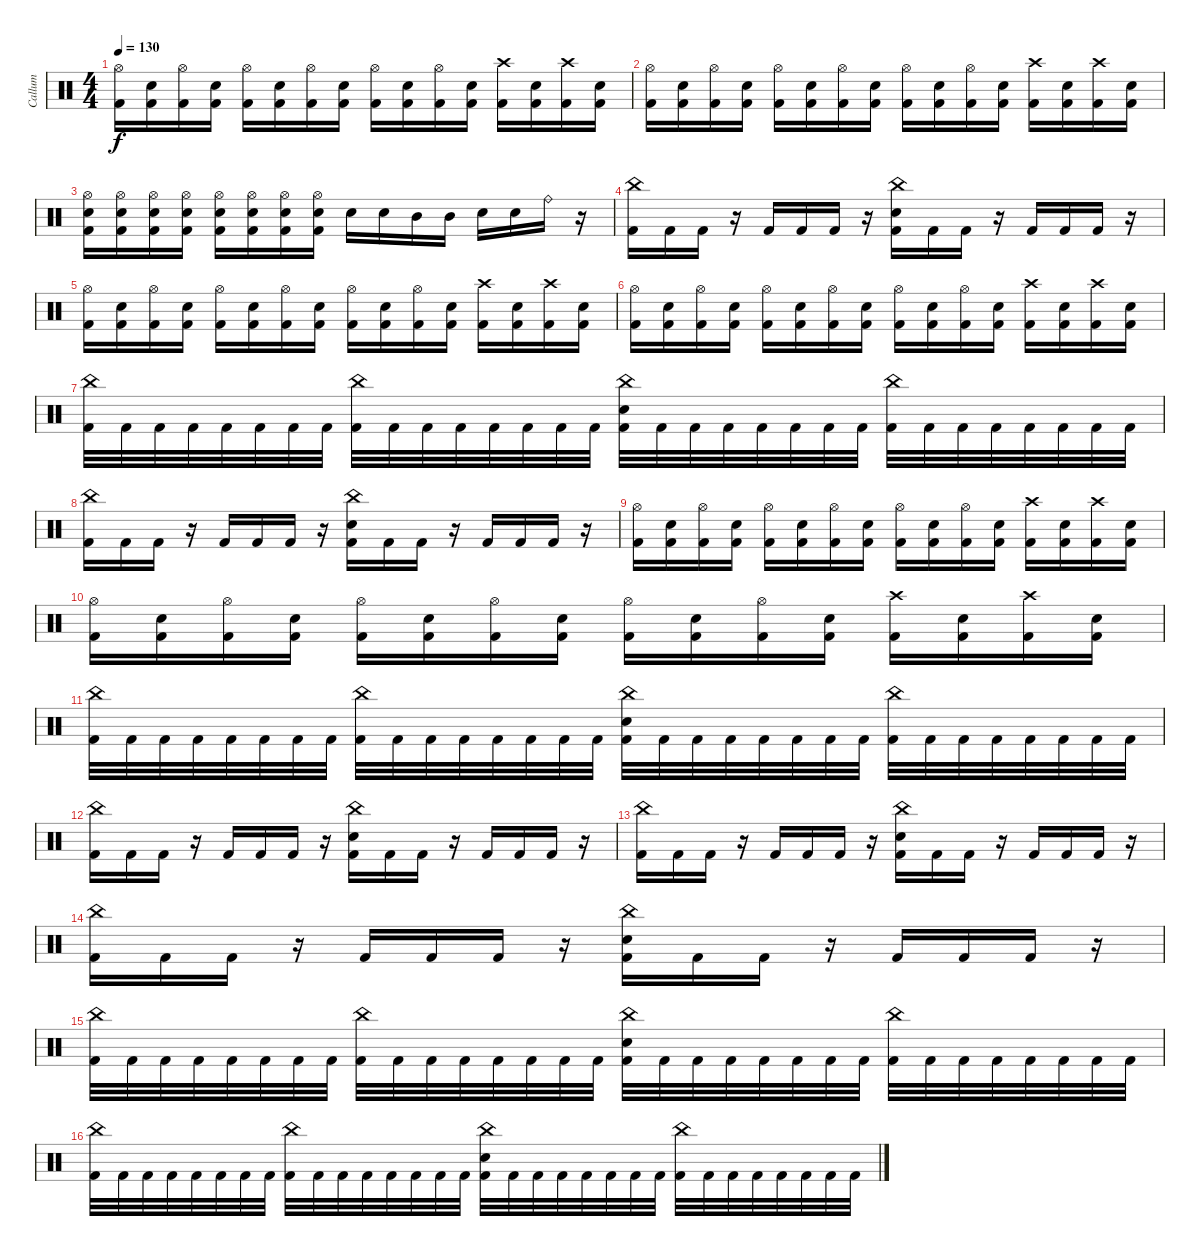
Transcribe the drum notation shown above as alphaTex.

\track ("Callum" "Callum") {instrument percussion}
\staff {score}
\articulation defaults
\ts (4 4)
\tempo 130
\clef neutral
\ks c
("Hi-Hat (open)" "Kick (hit) 2").16{dy f} ("Electric Snare (hit)" "Kick (hit) 2").16 ("Hi-Hat (open)" "Kick (hit) 2").16 ("Electric Snare (hit)" "Kick (hit) 2").16 ("Hi-Hat (open)" "Kick (hit) 2").16 ("Electric Snare (hit)" "Kick (hit) 2").16 ("Hi-Hat (open)" "Kick (hit) 2").16 ("Electric Snare (hit)" "Kick (hit) 2").16 ("Hi-Hat (open)" "Kick (hit) 2").16 ("Electric Snare (hit)" "Kick (hit) 2").16 ("Hi-Hat (open)" "Kick (hit) 2").16 ("Electric Snare (hit)" "Kick (hit) 2").16 ("Crash high (hit)" "Kick (hit) 2").16 ("Electric Snare (hit)" "Kick (hit) 2").16 ("Crash high (hit)" "Kick (hit) 2").16 ("Electric Snare (hit)" "Kick (hit) 2").16 |
("Hi-Hat (open)" "Kick (hit) 2").16 ("Electric Snare (hit)" "Kick (hit) 2").16 ("Hi-Hat (open)" "Kick (hit) 2").16 ("Electric Snare (hit)" "Kick (hit) 2").16 ("Hi-Hat (open)" "Kick (hit) 2").16 ("Electric Snare (hit)" "Kick (hit) 2").16 ("Hi-Hat (open)" "Kick (hit) 2").16 ("Electric Snare (hit)" "Kick (hit) 2").16 ("Hi-Hat (open)" "Kick (hit) 2").16 ("Electric Snare (hit)" "Kick (hit) 2").16 ("Hi-Hat (open)" "Kick (hit) 2").16 ("Electric Snare (hit)" "Kick (hit) 2").16 ("Crash high (hit)" "Kick (hit) 2").16 ("Electric Snare (hit)" "Kick (hit) 2").16 ("Crash high (hit)" "Kick (hit) 2").16 ("Electric Snare (hit)" "Kick (hit) 2").16 |
("Hi-Hat (open)" "Electric Snare (hit)" "Kick (hit) 2").16 ("Hi-Hat (open)" "Electric Snare (hit)" "Kick (hit) 2").16 ("Hi-Hat (open)" "Electric Snare (hit)" "Kick (hit) 2").16 ("Hi-Hat (open)" "Electric Snare (hit)" "Kick (hit) 2").16 ("Hi-Hat (open)" "Electric Snare (hit)" "Kick (hit) 2").16 ("Hi-Hat (open)" "Electric Snare (hit)" "Kick (hit) 2").16 ("Hi-Hat (open)" "Electric Snare (hit)" "Kick (hit) 2").16 ("Hi-Hat (open)" "Electric Snare (hit)" "Kick (hit) 2").16 "Electric Snare (hit)".16 "Electric Snare (hit)".16 "Mid Tom (hit)".16 "Mid Tom (hit)".16 "Electric Snare (hit)".16 "Electric Snare (hit)".16 "Ride (bell)".16 r.16 |
("China (hit)" "Kick (hit) 2").16 "Kick (hit) 2".16 "Kick (hit) 2".16 r.16 "Kick (hit) 2".16 "Kick (hit) 2".16 "Kick (hit) 2".16 r.16 ("China (hit)" "Electric Snare (hit)" "Kick (hit) 2").16 "Kick (hit) 2".16 "Kick (hit) 2".16 r.16 "Kick (hit) 2".16 "Kick (hit) 2".16 "Kick (hit) 2".16 r.16 |
("Hi-Hat (open)" "Kick (hit) 2").16 ("Electric Snare (hit)" "Kick (hit) 2").16 ("Hi-Hat (open)" "Kick (hit) 2").16 ("Electric Snare (hit)" "Kick (hit) 2").16 ("Hi-Hat (open)" "Kick (hit) 2").16 ("Electric Snare (hit)" "Kick (hit) 2").16 ("Hi-Hat (open)" "Kick (hit) 2").16 ("Electric Snare (hit)" "Kick (hit) 2").16 ("Hi-Hat (open)" "Kick (hit) 2").16 ("Electric Snare (hit)" "Kick (hit) 2").16 ("Hi-Hat (open)" "Kick (hit) 2").16 ("Electric Snare (hit)" "Kick (hit) 2").16 ("Crash high (hit)" "Kick (hit) 2").16 ("Electric Snare (hit)" "Kick (hit) 2").16 ("Crash high (hit)" "Kick (hit) 2").16 ("Electric Snare (hit)" "Kick (hit) 2").16 |
("Hi-Hat (open)" "Kick (hit) 2").16 ("Electric Snare (hit)" "Kick (hit) 2").16 ("Hi-Hat (open)" "Kick (hit) 2").16 ("Electric Snare (hit)" "Kick (hit) 2").16 ("Hi-Hat (open)" "Kick (hit) 2").16 ("Electric Snare (hit)" "Kick (hit) 2").16 ("Hi-Hat (open)" "Kick (hit) 2").16 ("Electric Snare (hit)" "Kick (hit) 2").16 ("Hi-Hat (open)" "Kick (hit) 2").16 ("Electric Snare (hit)" "Kick (hit) 2").16 ("Hi-Hat (open)" "Kick (hit) 2").16 ("Electric Snare (hit)" "Kick (hit) 2").16 ("Crash high (hit)" "Kick (hit) 2").16 ("Electric Snare (hit)" "Kick (hit) 2").16 ("Crash high (hit)" "Kick (hit) 2").16 ("Electric Snare (hit)" "Kick (hit) 2").16 |
("China (hit)" "Kick (hit) 2").32 "Kick (hit) 2".32 "Kick (hit) 2".32 "Kick (hit) 2".32 "Kick (hit) 2".32 "Kick (hit) 2".32 "Kick (hit) 2".32 "Kick (hit) 2".32 ("China (hit)" "Kick (hit) 2").32 "Kick (hit) 2".32 "Kick (hit) 2".32 "Kick (hit) 2".32 "Kick (hit) 2".32 "Kick (hit) 2".32 "Kick (hit) 2".32 "Kick (hit) 2".32 ("China (hit)" "Electric Snare (hit)" "Kick (hit) 2").32 "Kick (hit) 2".32 "Kick (hit) 2".32 "Kick (hit) 2".32 "Kick (hit) 2".32 "Kick (hit) 2".32 "Kick (hit) 2".32 "Kick (hit) 2".32 ("China (hit)" "Kick (hit) 2").32 "Kick (hit) 2".32 "Kick (hit) 2".32 "Kick (hit) 2".32 "Kick (hit) 2".32 "Kick (hit) 2".32 "Kick (hit) 2".32 "Kick (hit) 2".32 |
("China (hit)" "Kick (hit) 2").16 "Kick (hit) 2".16 "Kick (hit) 2".16 r.16 "Kick (hit) 2".16 "Kick (hit) 2".16 "Kick (hit) 2".16 r.16 ("China (hit)" "Electric Snare (hit)" "Kick (hit) 2").16 "Kick (hit) 2".16 "Kick (hit) 2".16 r.16 "Kick (hit) 2".16 "Kick (hit) 2".16 "Kick (hit) 2".16 r.16 |
("Hi-Hat (open)" "Kick (hit) 2").16 ("Electric Snare (hit)" "Kick (hit) 2").16 ("Hi-Hat (open)" "Kick (hit) 2").16 ("Electric Snare (hit)" "Kick (hit) 2").16 ("Hi-Hat (open)" "Kick (hit) 2").16 ("Electric Snare (hit)" "Kick (hit) 2").16 ("Hi-Hat (open)" "Kick (hit) 2").16 ("Electric Snare (hit)" "Kick (hit) 2").16 ("Hi-Hat (open)" "Kick (hit) 2").16 ("Electric Snare (hit)" "Kick (hit) 2").16 ("Hi-Hat (open)" "Kick (hit) 2").16 ("Electric Snare (hit)" "Kick (hit) 2").16 ("Crash high (hit)" "Kick (hit) 2").16 ("Electric Snare (hit)" "Kick (hit) 2").16 ("Crash high (hit)" "Kick (hit) 2").16 ("Electric Snare (hit)" "Kick (hit) 2").16 |
("Hi-Hat (open)" "Kick (hit) 2").16 ("Electric Snare (hit)" "Kick (hit) 2").16 ("Hi-Hat (open)" "Kick (hit) 2").16 ("Electric Snare (hit)" "Kick (hit) 2").16 ("Hi-Hat (open)" "Kick (hit) 2").16 ("Electric Snare (hit)" "Kick (hit) 2").16 ("Hi-Hat (open)" "Kick (hit) 2").16 ("Electric Snare (hit)" "Kick (hit) 2").16 ("Hi-Hat (open)" "Kick (hit) 2").16 ("Electric Snare (hit)" "Kick (hit) 2").16 ("Hi-Hat (open)" "Kick (hit) 2").16 ("Electric Snare (hit)" "Kick (hit) 2").16 ("Crash high (hit)" "Kick (hit) 2").16 ("Electric Snare (hit)" "Kick (hit) 2").16 ("Crash high (hit)" "Kick (hit) 2").16 ("Electric Snare (hit)" "Kick (hit) 2").16 |
("China (hit)" "Kick (hit) 2").32 "Kick (hit) 2".32 "Kick (hit) 2".32 "Kick (hit) 2".32 "Kick (hit) 2".32 "Kick (hit) 2".32 "Kick (hit) 2".32 "Kick (hit) 2".32 ("China (hit)" "Kick (hit) 2").32 "Kick (hit) 2".32 "Kick (hit) 2".32 "Kick (hit) 2".32 "Kick (hit) 2".32 "Kick (hit) 2".32 "Kick (hit) 2".32 "Kick (hit) 2".32 ("China (hit)" "Electric Snare (hit)" "Kick (hit) 2").32 "Kick (hit) 2".32 "Kick (hit) 2".32 "Kick (hit) 2".32 "Kick (hit) 2".32 "Kick (hit) 2".32 "Kick (hit) 2".32 "Kick (hit) 2".32 ("China (hit)" "Kick (hit) 2").32 "Kick (hit) 2".32 "Kick (hit) 2".32 "Kick (hit) 2".32 "Kick (hit) 2".32 "Kick (hit) 2".32 "Kick (hit) 2".32 "Kick (hit) 2".32 |
("China (hit)" "Kick (hit) 2").16 "Kick (hit) 2".16 "Kick (hit) 2".16 r.16 "Kick (hit) 2".16 "Kick (hit) 2".16 "Kick (hit) 2".16 r.16 ("China (hit)" "Electric Snare (hit)" "Kick (hit) 2").16 "Kick (hit) 2".16 "Kick (hit) 2".16 r.16 "Kick (hit) 2".16 "Kick (hit) 2".16 "Kick (hit) 2".16 r.16 |
("China (hit)" "Kick (hit) 2").16 "Kick (hit) 2".16 "Kick (hit) 2".16 r.16 "Kick (hit) 2".16 "Kick (hit) 2".16 "Kick (hit) 2".16 r.16 ("China (hit)" "Electric Snare (hit)" "Kick (hit) 2").16 "Kick (hit) 2".16 "Kick (hit) 2".16 r.16 "Kick (hit) 2".16 "Kick (hit) 2".16 "Kick (hit) 2".16 r.16 |
("China (hit)" "Kick (hit) 2").16 "Kick (hit) 2".16 "Kick (hit) 2".16 r.16 "Kick (hit) 2".16 "Kick (hit) 2".16 "Kick (hit) 2".16 r.16 ("China (hit)" "Electric Snare (hit)" "Kick (hit) 2").16 "Kick (hit) 2".16 "Kick (hit) 2".16 r.16 "Kick (hit) 2".16 "Kick (hit) 2".16 "Kick (hit) 2".16 r.16 |
("China (hit)" "Kick (hit) 2").32 "Kick (hit) 2".32 "Kick (hit) 2".32 "Kick (hit) 2".32 "Kick (hit) 2".32 "Kick (hit) 2".32 "Kick (hit) 2".32 "Kick (hit) 2".32 ("China (hit)" "Kick (hit) 2").32 "Kick (hit) 2".32 "Kick (hit) 2".32 "Kick (hit) 2".32 "Kick (hit) 2".32 "Kick (hit) 2".32 "Kick (hit) 2".32 "Kick (hit) 2".32 ("China (hit)" "Electric Snare (hit)" "Kick (hit) 2").32 "Kick (hit) 2".32 "Kick (hit) 2".32 "Kick (hit) 2".32 "Kick (hit) 2".32 "Kick (hit) 2".32 "Kick (hit) 2".32 "Kick (hit) 2".32 ("China (hit)" "Kick (hit) 2").32 "Kick (hit) 2".32 "Kick (hit) 2".32 "Kick (hit) 2".32 "Kick (hit) 2".32 "Kick (hit) 2".32 "Kick (hit) 2".32 "Kick (hit) 2".32 |
("China (hit)" "Kick (hit) 2").32 "Kick (hit) 2".32 "Kick (hit) 2".32 "Kick (hit) 2".32 "Kick (hit) 2".32 "Kick (hit) 2".32 "Kick (hit) 2".32 "Kick (hit) 2".32 ("China (hit)" "Kick (hit) 2").32 "Kick (hit) 2".32 "Kick (hit) 2".32 "Kick (hit) 2".32 "Kick (hit) 2".32 "Kick (hit) 2".32 "Kick (hit) 2".32 "Kick (hit) 2".32 ("China (hit)" "Electric Snare (hit)" "Kick (hit) 2").32 "Kick (hit) 2".32 "Kick (hit) 2".32 "Kick (hit) 2".32 "Kick (hit) 2".32 "Kick (hit) 2".32 "Kick (hit) 2".32 "Kick (hit) 2".32 ("China (hit)" "Kick (hit) 2").32 "Kick (hit) 2".32 "Kick (hit) 2".32 "Kick (hit) 2".32 "Kick (hit) 2".32 "Kick (hit) 2".32 "Kick (hit) 2".32 "Kick (hit) 2".32
